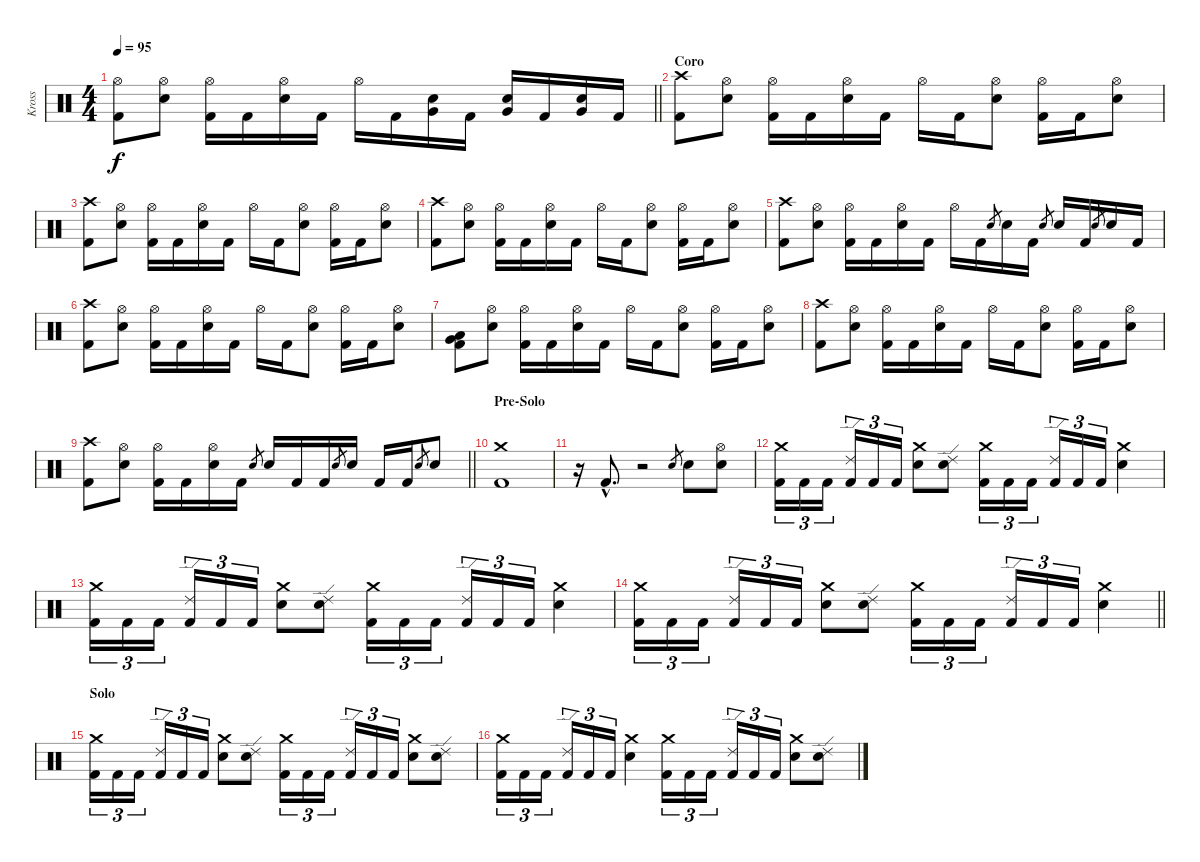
\track ("Kross" "Kross") {instrument percussion}
\staff {score}
\articulation defaults
\ts (4 4)
\tempo 95
\clef neutral
\barLineRight lightlight
\ks c
("Hi-Hat (open)" "Kick (hit) 2").8{dy f} ("Hi-Hat (open)" "Electric Snare (hit)").8 ("Hi-Hat (open)" "Kick (hit) 2").16 "Kick (hit) 2".16 ("Hi-Hat (open)" "Electric Snare (hit)").16 "Kick (hit) 2".16 "Hi-Hat (open)".16 "Kick (hit) 2".16 ("Very Low Tom (hit)" "Electric Snare (hit)").16 "Kick (hit) 2".16 ("Very Low Tom (hit)" "Electric Snare (hit)").16 "Kick (hit) 2".16 ("Very Low Tom (hit)" "Electric Snare (hit)").16 "Kick (hit) 2".16 |
\section ("" "Coro")
("Crash high (hit)" "Kick (hit) 2").8 ("Hi-Hat (open)" "Electric Snare (hit)").8 ("Hi-Hat (open)" "Kick (hit) 2").16 "Kick (hit) 2".16 ("Hi-Hat (open)" "Electric Snare (hit)").16 "Kick (hit) 2".16 "Hi-Hat (open)".16 "Kick (hit) 2".16 ("Hi-Hat (open)" "Electric Snare (hit)").8 ("Hi-Hat (open)" "Kick (hit) 2").16 "Kick (hit) 2".16 ("Hi-Hat (open)" "Electric Snare (hit)").8 |
("Crash high (hit)" "Kick (hit) 2").8 ("Hi-Hat (open)" "Electric Snare (hit)").8 ("Hi-Hat (open)" "Kick (hit) 2").16 "Kick (hit) 2".16 ("Hi-Hat (open)" "Electric Snare (hit)").16 "Kick (hit) 2".16 "Hi-Hat (open)".16 "Kick (hit) 2".16 ("Hi-Hat (open)" "Electric Snare (hit)").8 ("Hi-Hat (open)" "Kick (hit) 2").16 "Kick (hit) 2".16 ("Hi-Hat (open)" "Electric Snare (hit)").8 |
("Crash high (hit)" "Kick (hit) 2").8 ("Hi-Hat (open)" "Electric Snare (hit)").8 ("Hi-Hat (open)" "Kick (hit) 2").16 "Kick (hit) 2".16 ("Hi-Hat (open)" "Electric Snare (hit)").16 "Kick (hit) 2".16 "Hi-Hat (open)".16 "Kick (hit) 2".16 ("Hi-Hat (open)" "Electric Snare (hit)").8 ("Hi-Hat (open)" "Kick (hit) 2").16 "Kick (hit) 2".16 ("Hi-Hat (open)" "Electric Snare (hit)").8 |
("Crash high (hit)" "Kick (hit) 2").8 ("Hi-Hat (open)" "Electric Snare (hit)").8 ("Hi-Hat (open)" "Kick (hit) 2").16 "Kick (hit) 2".16 ("Hi-Hat (open)" "Electric Snare (hit)").16 "Kick (hit) 2".16 "Hi-Hat (open)".16 "Kick (hit) 2".16 "Electric Snare (hit)".8{gr} "Electric Snare (hit)".16 "Kick (hit) 2".16 "Electric Snare (hit)".8{gr} "Electric Snare (hit)".16 "Kick (hit) 2".16 "Electric Snare (hit)".8{gr} "Electric Snare (hit)".16 "Kick (hit) 2".16 |
("Crash high (hit)" "Kick (hit) 2").8 ("Hi-Hat (open)" "Electric Snare (hit)").8 ("Hi-Hat (open)" "Kick (hit) 2").16 "Kick (hit) 2".16 ("Hi-Hat (open)" "Electric Snare (hit)").16 "Kick (hit) 2".16 "Hi-Hat (open)".16 "Kick (hit) 2".16 ("Hi-Hat (open)" "Electric Snare (hit)").8 ("Hi-Hat (open)" "Kick (hit) 2").16 "Kick (hit) 2".16 ("Hi-Hat (open)" "Electric Snare (hit)").8 |
("Low Tom (hit)" "Very Low Tom (hit)" "Kick (hit) 2").8 ("Hi-Hat (open)" "Electric Snare (hit)").8 ("Hi-Hat (open)" "Kick (hit) 2").16 "Kick (hit) 2".16 ("Hi-Hat (open)" "Electric Snare (hit)").16 "Kick (hit) 2".16 "Hi-Hat (open)".16 "Kick (hit) 2".16 ("Hi-Hat (open)" "Electric Snare (hit)").8 ("Hi-Hat (open)" "Kick (hit) 2").16 "Kick (hit) 2".16 ("Hi-Hat (open)" "Electric Snare (hit)").8 |
("Crash high (hit)" "Kick (hit) 2").8 ("Hi-Hat (open)" "Electric Snare (hit)").8 ("Hi-Hat (open)" "Kick (hit) 2").16 "Kick (hit) 2".16 ("Hi-Hat (open)" "Electric Snare (hit)").16 "Kick (hit) 2".16 "Hi-Hat (open)".16 "Kick (hit) 2".16 ("Hi-Hat (open)" "Electric Snare (hit)").8 ("Hi-Hat (open)" "Kick (hit) 2").16 "Kick (hit) 2".16 ("Hi-Hat (open)" "Electric Snare (hit)").8 |
\barLineRight lightlight
("Crash high (hit)" "Kick (hit) 2").8 ("Hi-Hat (open)" "Electric Snare (hit)").8 ("Hi-Hat (open)" "Kick (hit) 2").16 "Kick (hit) 2".16 ("Hi-Hat (open)" "Electric Snare (hit)").16 "Kick (hit) 2".16 "Electric Snare (hit)".8{gr} "Electric Snare (hit)".16 "Kick (hit) 2".16 "Kick (hit) 2".16 "Electric Snare (hit)".8{gr} "Electric Snare (hit)".16 "Kick (hit) 2".16 "Kick (hit) 2".16 "Electric Snare (hit)".8{gr} "Electric Snare (hit)".8 |
\section ("" "Pre-Solo")
("Crash medium (hit)" "Kick (hit) 2").1 |
r.16 "Kick (hit) 2"{hac}.8{d} r.2 "Electric Snare (hit)".8{gr} "Electric Snare (hit)".8 ("Hi-Hat (open)" "Electric Snare (hit)").8 |
("Crash medium (hit)" "Kick (hit) 2").16{tu (3 2)} "Kick (hit) 2".16{tu (3 2)} "Kick (hit) 2".16{tu (3 2)} ("Ride (edge) 2" "Kick (hit) 2").16{tu (3 2)} "Kick (hit) 2".16{tu (3 2)} "Kick (hit) 2".16{tu (3 2)} ("Crash medium (hit)" "Electric Snare (hit)").8 ("Ride (edge) 2" "Electric Snare (hit)").8 ("Crash medium (hit)" "Kick (hit) 2").16{tu (3 2)} "Kick (hit) 2".16{tu (3 2)} "Kick (hit) 2".16{tu (3 2)} ("Ride (edge) 2" "Kick (hit) 2").16{tu (3 2)} "Kick (hit) 2".16{tu (3 2)} "Kick (hit) 2".16{tu (3 2)} ("Crash medium (hit)" "Electric Snare (hit)").4 |
("Crash medium (hit)" "Kick (hit) 2").16{tu (3 2)} "Kick (hit) 2".16{tu (3 2)} "Kick (hit) 2".16{tu (3 2)} ("Ride (edge) 2" "Kick (hit) 2").16{tu (3 2)} "Kick (hit) 2".16{tu (3 2)} "Kick (hit) 2".16{tu (3 2)} ("Crash medium (hit)" "Electric Snare (hit)").8 ("Ride (edge) 2" "Electric Snare (hit)").8 ("Crash medium (hit)" "Kick (hit) 2").16{tu (3 2)} "Kick (hit) 2".16{tu (3 2)} "Kick (hit) 2".16{tu (3 2)} ("Ride (edge) 2" "Kick (hit) 2").16{tu (3 2)} "Kick (hit) 2".16{tu (3 2)} "Kick (hit) 2".16{tu (3 2)} ("Crash medium (hit)" "Electric Snare (hit)").4 |
\barLineRight lightlight
("Crash medium (hit)" "Kick (hit) 2").16{tu (3 2)} "Kick (hit) 2".16{tu (3 2)} "Kick (hit) 2".16{tu (3 2)} ("Ride (edge) 2" "Kick (hit) 2").16{tu (3 2)} "Kick (hit) 2".16{tu (3 2)} "Kick (hit) 2".16{tu (3 2)} ("Crash medium (hit)" "Electric Snare (hit)").8 ("Ride (edge) 2" "Electric Snare (hit)").8 ("Crash medium (hit)" "Kick (hit) 2").16{tu (3 2)} "Kick (hit) 2".16{tu (3 2)} "Kick (hit) 2".16{tu (3 2)} ("Ride (edge) 2" "Kick (hit) 2").16{tu (3 2)} "Kick (hit) 2".16{tu (3 2)} "Kick (hit) 2".16{tu (3 2)} ("Crash medium (hit)" "Electric Snare (hit)").4 |
\section ("" "Solo")
("Crash medium (hit)" "Kick (hit) 2").16{tu (3 2)} "Kick (hit) 2".16{tu (3 2)} "Kick (hit) 2".16{tu (3 2)} ("Ride (edge) 2" "Kick (hit) 2").16{tu (3 2)} "Kick (hit) 2".16{tu (3 2)} "Kick (hit) 2".16{tu (3 2)} ("Crash medium (hit)" "Electric Snare (hit)").8 ("Ride (edge) 2" "Electric Snare (hit)").8 ("Crash medium (hit)" "Kick (hit) 2").16{tu (3 2)} "Kick (hit) 2".16{tu (3 2)} "Kick (hit) 2".16{tu (3 2)} ("Ride (edge) 2" "Kick (hit) 2").16{tu (3 2)} "Kick (hit) 2".16{tu (3 2)} "Kick (hit) 2".16{tu (3 2)} ("Crash medium (hit)" "Electric Snare (hit)").8 ("Ride (edge) 2" "Electric Snare (hit)").8 |
("Crash medium (hit)" "Kick (hit) 2").16{tu (3 2)} "Kick (hit) 2".16{tu (3 2)} "Kick (hit) 2".16{tu (3 2)} ("Ride (edge) 2" "Kick (hit) 2").16{tu (3 2)} "Kick (hit) 2".16{tu (3 2)} "Kick (hit) 2".16{tu (3 2)} ("Crash medium (hit)" "Electric Snare (hit)").4 ("Crash medium (hit)" "Kick (hit) 2").16{tu (3 2)} "Kick (hit) 2".16{tu (3 2)} "Kick (hit) 2".16{tu (3 2)} ("Ride (edge) 2" "Kick (hit) 2").16{tu (3 2)} "Kick (hit) 2".16{tu (3 2)} "Kick (hit) 2".16{tu (3 2)} ("Crash medium (hit)" "Electric Snare (hit)").8 ("Ride (edge) 2" "Electric Snare (hit)").8
